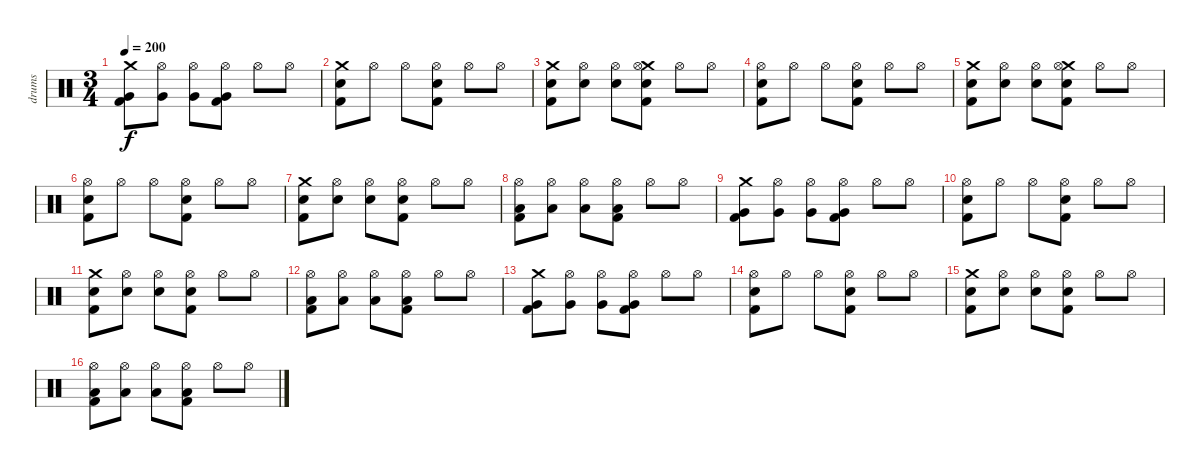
\track ("drums" "drums") {instrument percussion}
\staff {score}
\articulation defaults
\ts (3 4)
\tempo 200
\clef neutral
\ks c
("Crash medium (hit)" "Very Low Tom (hit)" "Kick (hit) 2").8{dy f} ("Hi-Hat (open)" "Very Low Tom (hit)").8 ("Hi-Hat (open)" "Very Low Tom (hit)").8 ("Hi-Hat (open)" "Very Low Tom (hit)" "Kick (hit) 2").8 "Hi-Hat (open)".8 "Hi-Hat (open)".8 |
("Crash medium (hit)" "Snare (hit) 2" "Kick (hit) 2").8 "Hi-Hat (open)".8 "Hi-Hat (open)".8 ("Hi-Hat (open)" "Snare (hit) 2" "Kick (hit) 2").8 "Hi-Hat (open)".8 "Hi-Hat (open)".8 |
("Crash medium (hit)" "Snare (hit) 2" "Kick (hit) 2").8 ("Hi-Hat (open)" "Snare (hit) 2").8 ("Hi-Hat (open)" "Snare (hit) 2").8 ("Crash medium (hit)" "Hi-Hat (open)" "Snare (hit) 2" "Kick (hit) 2").8 "Hi-Hat (open)".8 "Hi-Hat (open)".8 |
("Hi-Hat (open)" "Snare (hit) 2" "Kick (hit) 2").8 "Hi-Hat (open)".8 "Hi-Hat (open)".8 ("Hi-Hat (open)" "Snare (hit) 2" "Kick (hit) 2").8 "Hi-Hat (open)".8 "Hi-Hat (open)".8 |
("Crash medium (hit)" "Snare (hit) 2" "Kick (hit) 2").8 ("Hi-Hat (open)" "Snare (hit) 2").8 ("Hi-Hat (open)" "Snare (hit) 2").8 ("Crash medium (hit)" "Hi-Hat (open)" "Snare (hit) 2" "Kick (hit) 2").8 "Hi-Hat (open)".8 "Hi-Hat (open)".8 |
("Hi-Hat (open)" "Snare (hit) 2" "Kick (hit) 2").8 "Hi-Hat (open)".8 "Hi-Hat (open)".8 ("Hi-Hat (open)" "Snare (hit) 2" "Kick (hit) 2").8 "Hi-Hat (open)".8 "Hi-Hat (open)".8 |
("Crash medium (hit)" "Snare (hit) 2" "Kick (hit) 2").8 ("Hi-Hat (open)" "Snare (hit) 2").8 ("Hi-Hat (open)" "Snare (hit) 2").8 ("Hi-Hat (open)" "Snare (hit) 2" "Kick (hit) 2").8 "Hi-Hat (open)".8 "Hi-Hat (open)".8 |
("Hi-Hat (open)" "Low Tom (hit)" "Kick (hit) 2").8 ("Hi-Hat (open)" "Low Tom (hit)").8 ("Hi-Hat (open)" "Low Tom (hit)").8 ("Hi-Hat (open)" "Low Tom (hit)" "Kick (hit) 2").8 "Hi-Hat (open)".8 "Hi-Hat (open)".8 |
("Crash medium (hit)" "Very Low Tom (hit)" "Kick (hit) 2").8 ("Hi-Hat (open)" "Very Low Tom (hit)").8 ("Hi-Hat (open)" "Very Low Tom (hit)").8 ("Hi-Hat (open)" "Very Low Tom (hit)" "Kick (hit) 2").8 "Hi-Hat (open)".8 "Hi-Hat (open)".8 |
("Hi-Hat (open)" "Snare (hit) 2" "Kick (hit) 2").8 "Hi-Hat (open)".8 "Hi-Hat (open)".8 ("Hi-Hat (open)" "Snare (hit) 2" "Kick (hit) 2").8 "Hi-Hat (open)".8 "Hi-Hat (open)".8 |
("Crash medium (hit)" "Snare (hit) 2" "Kick (hit) 2").8 ("Hi-Hat (open)" "Snare (hit) 2").8 ("Hi-Hat (open)" "Snare (hit) 2").8 ("Hi-Hat (open)" "Snare (hit) 2" "Kick (hit) 2").8 "Hi-Hat (open)".8 "Hi-Hat (open)".8 |
("Hi-Hat (open)" "Low Tom (hit)" "Kick (hit) 2").8 ("Hi-Hat (open)" "Low Tom (hit)").8 ("Hi-Hat (open)" "Low Tom (hit)").8 ("Hi-Hat (open)" "Low Tom (hit)" "Kick (hit) 2").8 "Hi-Hat (open)".8 "Hi-Hat (open)".8 |
("Crash medium (hit)" "Very Low Tom (hit)" "Kick (hit) 2").8 ("Hi-Hat (open)" "Very Low Tom (hit)").8 ("Hi-Hat (open)" "Very Low Tom (hit)").8 ("Hi-Hat (open)" "Very Low Tom (hit)" "Kick (hit) 2").8 "Hi-Hat (open)".8 "Hi-Hat (open)".8 |
("Hi-Hat (open)" "Snare (hit) 2" "Kick (hit) 2").8 "Hi-Hat (open)".8 "Hi-Hat (open)".8 ("Hi-Hat (open)" "Snare (hit) 2" "Kick (hit) 2").8 "Hi-Hat (open)".8 "Hi-Hat (open)".8 |
("Crash medium (hit)" "Snare (hit) 2" "Kick (hit) 2").8 ("Hi-Hat (open)" "Snare (hit) 2").8 ("Hi-Hat (open)" "Snare (hit) 2").8 ("Hi-Hat (open)" "Snare (hit) 2" "Kick (hit) 2").8 "Hi-Hat (open)".8 "Hi-Hat (open)".8 |
("Hi-Hat (open)" "Low Tom (hit)" "Kick (hit) 2").8 ("Hi-Hat (open)" "Low Tom (hit)").8 ("Hi-Hat (open)" "Low Tom (hit)").8 ("Hi-Hat (open)" "Low Tom (hit)" "Kick (hit) 2").8 "Hi-Hat (open)".8 "Hi-Hat (open)".8
